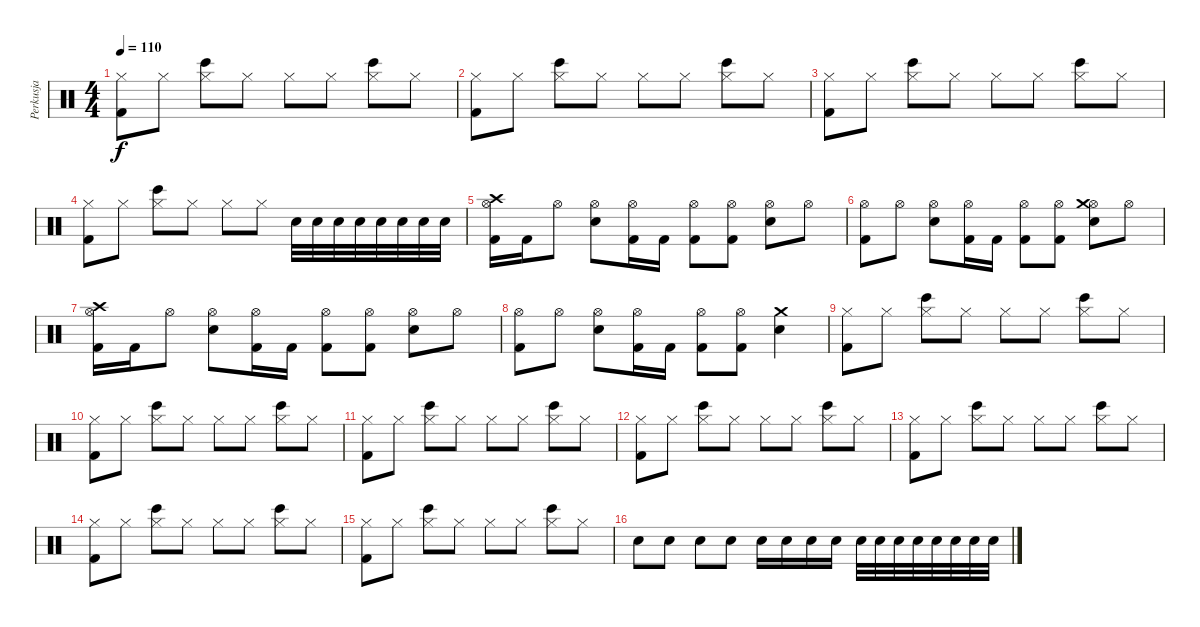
\track ("Perkusja" "Perkusja") {instrument percussion}
\staff {score}
\articulation defaults
\ts (4 4)
\tempo 110
\clef neutral
\ks c
("Hi-Hat (closed)" "Kick (hit) 2").8{dy f} "Hi-Hat (closed)".8 ("Hi-Hat (closed)" "Bongo High (hit)").8 "Hi-Hat (closed)".8 "Hi-Hat (closed)".8 "Hi-Hat (closed)".8 ("Hi-Hat (closed)" "Bongo High (hit)").8 "Hi-Hat (closed)".8 |
("Hi-Hat (closed)" "Kick (hit) 2").8 "Hi-Hat (closed)".8 ("Hi-Hat (closed)" "Bongo High (hit)").8 "Hi-Hat (closed)".8 "Hi-Hat (closed)".8 "Hi-Hat (closed)".8 ("Hi-Hat (closed)" "Bongo High (hit)").8 "Hi-Hat (closed)".8 |
("Hi-Hat (closed)" "Kick (hit) 2").8 "Hi-Hat (closed)".8 ("Hi-Hat (closed)" "Bongo High (hit)").8 "Hi-Hat (closed)".8 "Hi-Hat (closed)".8 "Hi-Hat (closed)".8 ("Hi-Hat (closed)" "Bongo High (hit)").8 "Hi-Hat (closed)".8 |
("Hi-Hat (closed)" "Kick (hit) 2").8 "Hi-Hat (closed)".8 ("Hi-Hat (closed)" "Bongo High (hit)").8 "Hi-Hat (closed)".8 "Hi-Hat (closed)".8 "Hi-Hat (closed)".8 "Snare (hit) 2".32 "Snare (hit) 2".32 "Snare (hit) 2".32 "Snare (hit) 2".32 "Snare (hit) 2".32 "Snare (hit) 2".32 "Snare (hit) 2".32 "Snare (hit) 2".32 |
("Hi-Hat (open)" "Kick (hit) 2" "Crash high (hit)").16 "Kick (hit) 2".16 "Hi-Hat (open)".8 ("Hi-Hat (open)" "Snare (hit) 2").8 ("Hi-Hat (open)" "Kick (hit) 2").16 "Kick (hit) 2".16 ("Hi-Hat (open)" "Kick (hit) 2").8 ("Hi-Hat (open)" "Kick (hit) 2").8 ("Hi-Hat (open)" "Snare (hit) 2").8 "Hi-Hat (open)".8 |
("Hi-Hat (open)" "Kick (hit) 2").8 "Hi-Hat (open)".8 ("Hi-Hat (open)" "Snare (hit) 2").8 ("Hi-Hat (open)" "Kick (hit) 2").16 "Kick (hit) 2".16 ("Hi-Hat (open)" "Kick (hit) 2").8 ("Hi-Hat (open)" "Kick (hit) 2").8 ("Hi-Hat (open)" "Snare (hit) 2" "Crash medium (hit)").8 "Hi-Hat (open)".8 |
("Hi-Hat (open)" "Kick (hit) 2" "Crash high (hit)").16 "Kick (hit) 2".16 "Hi-Hat (open)".8 ("Hi-Hat (open)" "Snare (hit) 2").8 ("Hi-Hat (open)" "Kick (hit) 2").16 "Kick (hit) 2".16 ("Hi-Hat (open)" "Kick (hit) 2").8 ("Hi-Hat (open)" "Kick (hit) 2").8 ("Hi-Hat (open)" "Snare (hit) 2").8 "Hi-Hat (open)".8 |
("Hi-Hat (open)" "Kick (hit) 2").8 "Hi-Hat (open)".8 ("Hi-Hat (open)" "Snare (hit) 2").8 ("Hi-Hat (open)" "Kick (hit) 2").16 "Kick (hit) 2".16 ("Hi-Hat (open)" "Kick (hit) 2").8 ("Hi-Hat (open)" "Kick (hit) 2").8 ("Snare (hit) 2" "Crash medium (hit)").4 |
("Hi-Hat (closed)" "Kick (hit) 2").8 "Hi-Hat (closed)".8 ("Hi-Hat (closed)" "Bongo High (hit)").8 "Hi-Hat (closed)".8 "Hi-Hat (closed)".8 "Hi-Hat (closed)".8 ("Hi-Hat (closed)" "Bongo High (hit)").8 "Hi-Hat (closed)".8 |
("Hi-Hat (closed)" "Kick (hit) 2").8 "Hi-Hat (closed)".8 ("Hi-Hat (closed)" "Bongo High (hit)").8 "Hi-Hat (closed)".8 "Hi-Hat (closed)".8 "Hi-Hat (closed)".8 ("Hi-Hat (closed)" "Bongo High (hit)").8 "Hi-Hat (closed)".8 |
("Hi-Hat (closed)" "Kick (hit) 2").8 "Hi-Hat (closed)".8 ("Hi-Hat (closed)" "Bongo High (hit)").8 "Hi-Hat (closed)".8 "Hi-Hat (closed)".8 "Hi-Hat (closed)".8 ("Hi-Hat (closed)" "Bongo High (hit)").8 "Hi-Hat (closed)".8 |
("Hi-Hat (closed)" "Kick (hit) 2").8 "Hi-Hat (closed)".8 ("Hi-Hat (closed)" "Bongo High (hit)").8 "Hi-Hat (closed)".8 "Hi-Hat (closed)".8 "Hi-Hat (closed)".8 ("Hi-Hat (closed)" "Bongo High (hit)").8 "Hi-Hat (closed)".8 |
("Hi-Hat (closed)" "Kick (hit) 2").8 "Hi-Hat (closed)".8 ("Hi-Hat (closed)" "Bongo High (hit)").8 "Hi-Hat (closed)".8 "Hi-Hat (closed)".8 "Hi-Hat (closed)".8 ("Hi-Hat (closed)" "Bongo High (hit)").8 "Hi-Hat (closed)".8 |
("Hi-Hat (closed)" "Kick (hit) 2").8 "Hi-Hat (closed)".8 ("Hi-Hat (closed)" "Bongo High (hit)").8 "Hi-Hat (closed)".8 "Hi-Hat (closed)".8 "Hi-Hat (closed)".8 ("Hi-Hat (closed)" "Bongo High (hit)").8 "Hi-Hat (closed)".8 |
("Hi-Hat (closed)" "Kick (hit) 2").8 "Hi-Hat (closed)".8 ("Hi-Hat (closed)" "Bongo High (hit)").8 "Hi-Hat (closed)".8 "Hi-Hat (closed)".8 "Hi-Hat (closed)".8 ("Hi-Hat (closed)" "Bongo High (hit)").8 "Hi-Hat (closed)".8 |
"Snare (hit) 2".8 "Snare (hit) 2".8 "Snare (hit) 2".8 "Snare (hit) 2".8 "Snare (hit) 2".16 "Snare (hit) 2".16 "Snare (hit) 2".16 "Snare (hit) 2".16 "Snare (hit) 2".32 "Snare (hit) 2".32 "Snare (hit) 2".32 "Snare (hit) 2".32 "Snare (hit) 2".32 "Snare (hit) 2".32 "Snare (hit) 2".32 "Snare (hit) 2".32
